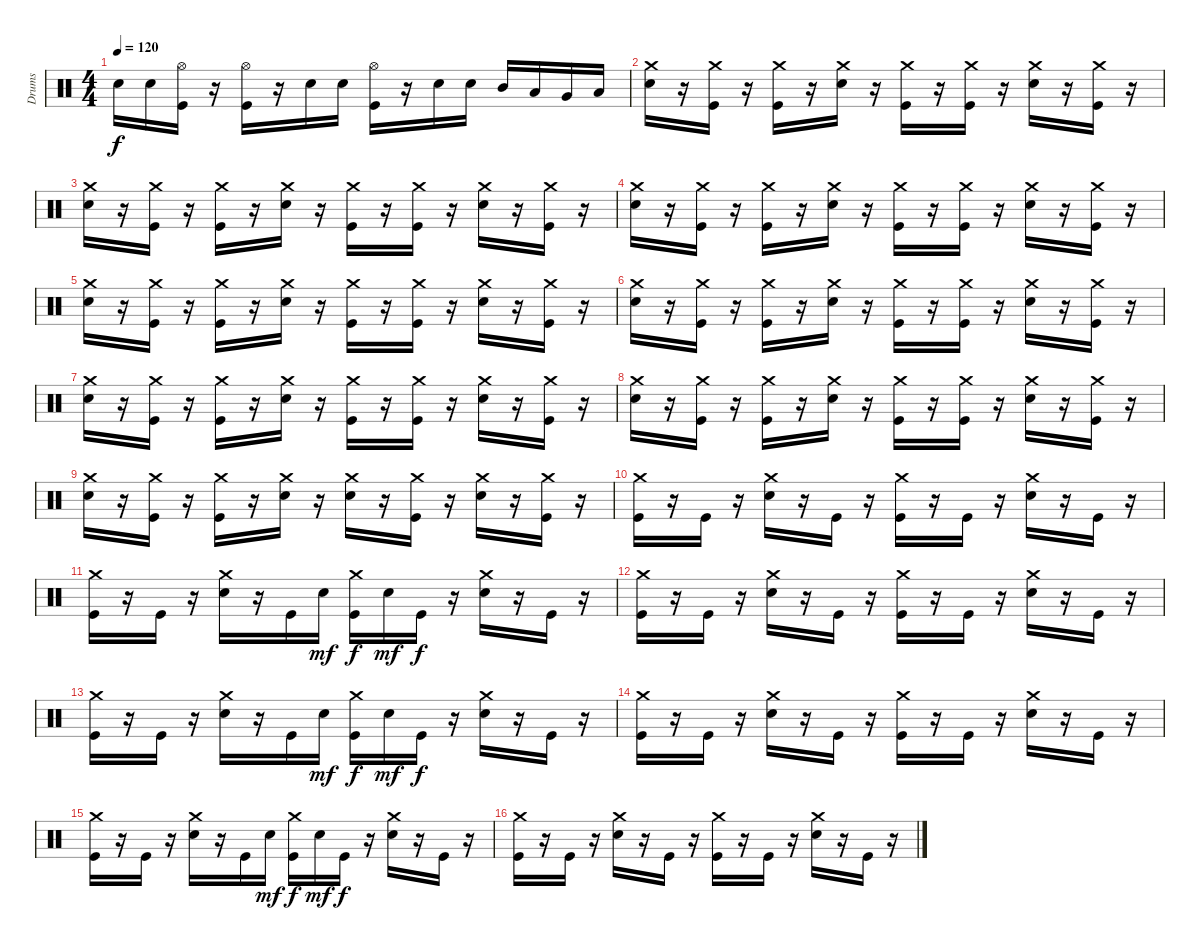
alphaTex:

\track ("Drums" "Drums") {instrument percussion}
\staff {score}
\articulation defaults
\ts (4 4)
\tempo 120
\clef neutral
\ks c "Electric Snare (hit)".16{dy f} "Electric Snare (hit)".16
("Kick (hit)" "Hi-Hat (open)").16 r.16 ("Kick (hit)" "Hi-Hat (open)").16 r.16 "Electric Snare (hit)".16 "Electric Snare (hit)".16 ("Kick (hit)" "Hi-Hat (open)").16 r.16 "Electric Snare (hit)".16 "Electric Snare (hit)".16 "Mid Tom (hit)".16 "Low Tom (hit)".16 "Very Low Tom (hit)".16 "Low Tom (hit)".16 |
("Electric Snare (hit)" "Crash medium (hit)").16 r.16 ("Kick (hit)" "Crash medium (hit)").16 r.16 ("Kick (hit)" "Crash medium (hit)").16 r.16 ("Electric Snare (hit)" "Crash medium (hit)").16 r.16 ("Kick (hit)" "Crash medium (hit)").16 r.16 ("Kick (hit)" "Crash medium (hit)").16 r.16 ("Electric Snare (hit)" "Crash medium (hit)").16 r.16 ("Kick (hit)" "Crash medium (hit)").16 r.16 |
("Electric Snare (hit)" "Crash medium (hit)").16 r.16 ("Kick (hit)" "Crash medium (hit)").16 r.16 ("Kick (hit)" "Crash medium (hit)").16 r.16 ("Electric Snare (hit)" "Crash medium (hit)").16 r.16 ("Kick (hit)" "Crash medium (hit)").16 r.16 ("Kick (hit)" "Crash medium (hit)").16 r.16 ("Electric Snare (hit)" "Crash medium (hit)").16 r.16 ("Kick (hit)" "Crash medium (hit)").16 r.16 |
("Electric Snare (hit)" "Crash medium (hit)").16 r.16 ("Kick (hit)" "Crash medium (hit)").16 r.16 ("Kick (hit)" "Crash medium (hit)").16 r.16 ("Electric Snare (hit)" "Crash medium (hit)").16 r.16 ("Kick (hit)" "Crash medium (hit)").16 r.16 ("Kick (hit)" "Crash medium (hit)").16 r.16 ("Electric Snare (hit)" "Crash medium (hit)").16 r.16 ("Kick (hit)" "Crash medium (hit)").16 r.16 |
("Electric Snare (hit)" "Crash medium (hit)").16 r.16 ("Kick (hit)" "Crash medium (hit)").16 r.16 ("Kick (hit)" "Crash medium (hit)").16 r.16 ("Electric Snare (hit)" "Crash medium (hit)").16 r.16 ("Kick (hit)" "Crash medium (hit)").16 r.16 ("Kick (hit)" "Crash medium (hit)").16 r.16 ("Electric Snare (hit)" "Crash medium (hit)").16 r.16 ("Kick (hit)" "Crash medium (hit)").16 r.16 |
("Electric Snare (hit)" "Crash medium (hit)").16 r.16 ("Kick (hit)" "Crash medium (hit)").16 r.16 ("Kick (hit)" "Crash medium (hit)").16 r.16 ("Electric Snare (hit)" "Crash medium (hit)").16 r.16 ("Kick (hit)" "Crash medium (hit)").16 r.16 ("Kick (hit)" "Crash medium (hit)").16 r.16 ("Electric Snare (hit)" "Crash medium (hit)").16 r.16 ("Kick (hit)" "Crash medium (hit)").16 r.16 |
("Electric Snare (hit)" "Crash medium (hit)").16 r.16 ("Kick (hit)" "Crash medium (hit)").16 r.16 ("Kick (hit)" "Crash medium (hit)").16 r.16 ("Electric Snare (hit)" "Crash medium (hit)").16 r.16 ("Kick (hit)" "Crash medium (hit)").16 r.16 ("Kick (hit)" "Crash medium (hit)").16 r.16 ("Electric Snare (hit)" "Crash medium (hit)").16 r.16 ("Kick (hit)" "Crash medium (hit)").16 r.16 |
("Electric Snare (hit)" "Crash medium (hit)").16 r.16 ("Kick (hit)" "Crash medium (hit)").16 r.16 ("Kick (hit)" "Crash medium (hit)").16 r.16 ("Electric Snare (hit)" "Crash medium (hit)").16 r.16 ("Kick (hit)" "Crash medium (hit)").16 r.16 ("Kick (hit)" "Crash medium (hit)").16 r.16 ("Electric Snare (hit)" "Crash medium (hit)").16 r.16 ("Kick (hit)" "Crash medium (hit)").16 r.16 |
("Electric Snare (hit)" "Crash medium (hit)").16 r.16 ("Kick (hit)" "Crash medium (hit)").16 r.16 ("Kick (hit)" "Crash medium (hit)").16 r.16 ("Electric Snare (hit)" "Crash medium (hit)").16 r.16 ("Electric Snare (hit)" "Crash medium (hit)").16 r.16 ("Kick (hit)" "Crash medium (hit)").16 r.16 ("Electric Snare (hit)" "Crash medium (hit)").16 r.16 ("Kick (hit)" "Crash medium (hit)").16 r.16 |
("Kick (hit)" "Crash medium (hit)").16 r.16 "Kick (hit)".16 r.16 ("Electric Snare (hit)" "Crash medium (hit)").16 r.16 "Kick (hit)".16 r.16 ("Kick (hit)" "Crash medium (hit)").16 r.16 "Kick (hit)".16 r.16 ("Electric Snare (hit)" "Crash medium (hit)").16 r.16 "Kick (hit)".16 r.16 |
("Kick (hit)" "Crash medium (hit)").16 r.16 "Kick (hit)".16 r.16 ("Electric Snare (hit)" "Crash medium (hit)").16 r.16 "Kick (hit)".16 "Electric Snare (hit)".16{dy mf} ("Kick (hit)" "Crash medium (hit)").16{dy f} "Electric Snare (hit)".16{dy mf} "Kick (hit)".16{dy f} r.16 ("Electric Snare (hit)" "Crash medium (hit)").16 r.16 "Kick (hit)".16 r.16 |
("Kick (hit)" "Crash medium (hit)").16 r.16 "Kick (hit)".16 r.16 ("Electric Snare (hit)" "Crash medium (hit)").16 r.16 "Kick (hit)".16 r.16 ("Kick (hit)" "Crash medium (hit)").16 r.16 "Kick (hit)".16 r.16 ("Electric Snare (hit)" "Crash medium (hit)").16 r.16 "Kick (hit)".16 r.16 |
("Kick (hit)" "Crash medium (hit)").16 r.16 "Kick (hit)".16 r.16 ("Electric Snare (hit)" "Crash medium (hit)").16 r.16 "Kick (hit)".16 "Electric Snare (hit)".16{dy mf} ("Kick (hit)" "Crash medium (hit)").16{dy f} "Electric Snare (hit)".16{dy mf} "Kick (hit)".16{dy f} r.16 ("Electric Snare (hit)" "Crash medium (hit)").16 r.16 "Kick (hit)".16 r.16 |
("Kick (hit)" "Crash medium (hit)").16 r.16 "Kick (hit)".16 r.16 ("Electric Snare (hit)" "Crash medium (hit)").16 r.16 "Kick (hit)".16 r.16 ("Kick (hit)" "Crash medium (hit)").16 r.16 "Kick (hit)".16 r.16 ("Electric Snare (hit)" "Crash medium (hit)").16 r.16 "Kick (hit)".16 r.16 |
("Kick (hit)" "Crash medium (hit)").16 r.16 "Kick (hit)".16 r.16 ("Electric Snare (hit)" "Crash medium (hit)").16 r.16 "Kick (hit)".16 "Electric Snare (hit)".16{dy mf} ("Kick (hit)" "Crash medium (hit)").16{dy f} "Electric Snare (hit)".16{dy mf} "Kick (hit)".16{dy f} r.16 ("Electric Snare (hit)" "Crash medium (hit)").16 r.16 "Kick (hit)".16 r.16 |
("Kick (hit)" "Crash medium (hit)").16 r.16 "Kick (hit)".16 r.16 ("Electric Snare (hit)" "Crash medium (hit)").16 r.16 "Kick (hit)".16 r.16 ("Kick (hit)" "Crash medium (hit)").16 r.16 "Kick (hit)".16 r.16 ("Electric Snare (hit)" "Crash medium (hit)").16 r.16 "Kick (hit)".16 r.16
